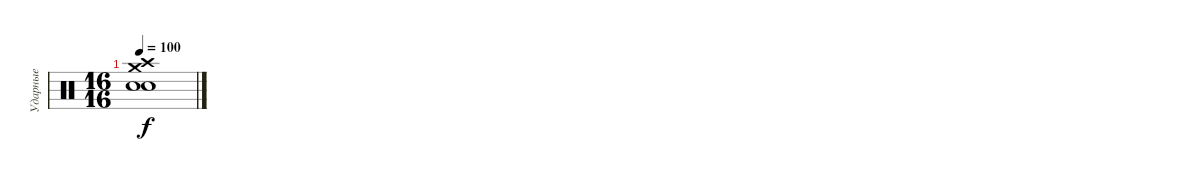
\track ("Ударные" "Ударные") {instrument percussion}
\staff {score}
\articulation defaults
\ts (16 16)
\tempo 100
\clef neutral
\ks c
("Electric Snare (hit)" "Crash medium (hit)" "Crash high (hit)" "Snare (hit) 2").1{dy f}
